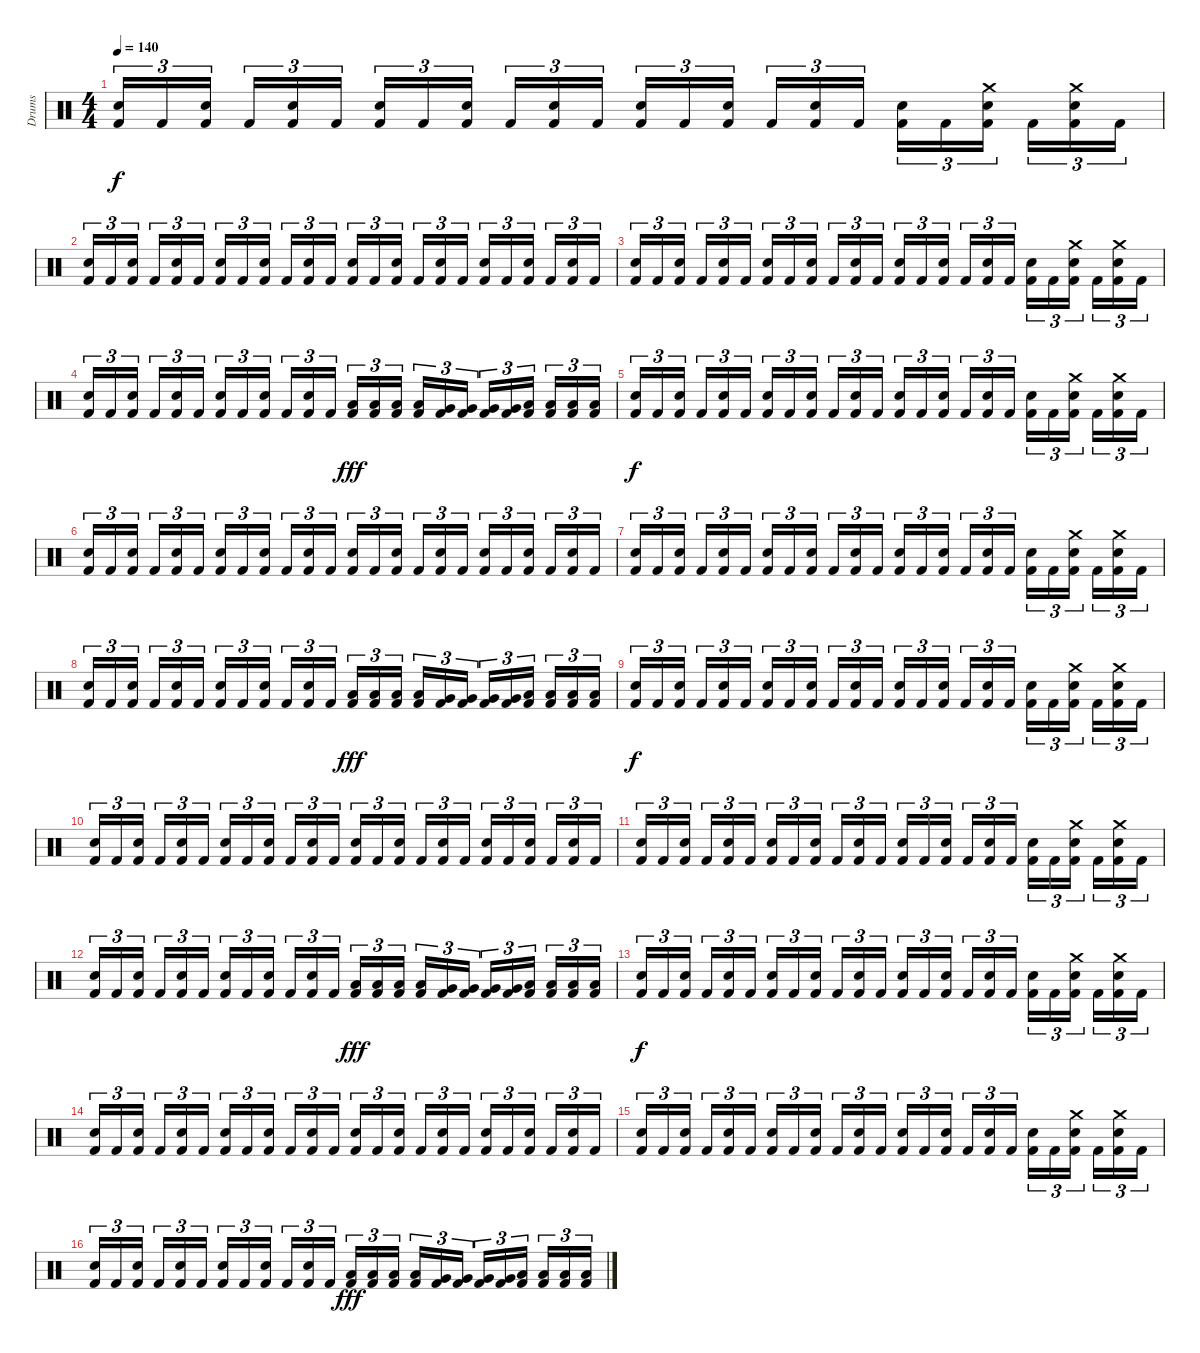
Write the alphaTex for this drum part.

\track ("Drums" "Drums") {instrument percussion}
\staff {score}
\articulation defaults
\ts (4 4)
\tempo 140
\clef neutral
\ks c
("Snare (hit) 2" "Kick (hit) 2").16{tu (3 2) dy f} "Kick (hit) 2".16{tu (3 2)} ("Snare (hit) 2" "Kick (hit) 2").16{tu (3 2)} "Kick (hit) 2".16{tu (3 2)} ("Snare (hit) 2" "Kick (hit) 2").16{tu (3 2)} "Kick (hit) 2".16{tu (3 2)} ("Snare (hit) 2" "Kick (hit) 2").16{tu (3 2)} "Kick (hit) 2".16{tu (3 2)} ("Snare (hit) 2" "Kick (hit) 2").16{tu (3 2)} "Kick (hit) 2".16{tu (3 2)} ("Snare (hit) 2" "Kick (hit) 2").16{tu (3 2)} "Kick (hit) 2".16{tu (3 2)} ("Snare (hit) 2" "Kick (hit) 2").16{tu (3 2)} "Kick (hit) 2".16{tu (3 2)} ("Snare (hit) 2" "Kick (hit) 2").16{tu (3 2)} "Kick (hit) 2".16{tu (3 2)} ("Snare (hit) 2" "Kick (hit) 2").16{tu (3 2)} "Kick (hit) 2".16{tu (3 2)} ("Snare (hit) 2" "Kick (hit) 2").16{tu (3 2)} "Kick (hit) 2".16{tu (3 2)} ("Snare (hit) 2" "Crash medium (hit)" "Kick (hit) 2").16{tu (3 2)} "Kick (hit) 2".16{tu (3 2)} ("Snare (hit) 2" "Crash medium (hit)" "Kick (hit) 2").16{tu (3 2)} "Kick (hit) 2".16{tu (3 2)} |
("Snare (hit) 2" "Kick (hit) 2").16{tu (3 2)} "Kick (hit) 2".16{tu (3 2)} ("Snare (hit) 2" "Kick (hit) 2").16{tu (3 2)} "Kick (hit) 2".16{tu (3 2)} ("Snare (hit) 2" "Kick (hit) 2").16{tu (3 2)} "Kick (hit) 2".16{tu (3 2)} ("Snare (hit) 2" "Kick (hit) 2").16{tu (3 2)} "Kick (hit) 2".16{tu (3 2)} ("Snare (hit) 2" "Kick (hit) 2").16{tu (3 2)} "Kick (hit) 2".16{tu (3 2)} ("Snare (hit) 2" "Kick (hit) 2").16{tu (3 2)} "Kick (hit) 2".16{tu (3 2)} ("Snare (hit) 2" "Kick (hit) 2").16{tu (3 2)} "Kick (hit) 2".16{tu (3 2)} ("Snare (hit) 2" "Kick (hit) 2").16{tu (3 2)} "Kick (hit) 2".16{tu (3 2)} ("Snare (hit) 2" "Kick (hit) 2").16{tu (3 2)} "Kick (hit) 2".16{tu (3 2)} ("Snare (hit) 2" "Kick (hit) 2").16{tu (3 2)} "Kick (hit) 2".16{tu (3 2)} ("Snare (hit) 2" "Kick (hit) 2").16{tu (3 2)} "Kick (hit) 2".16{tu (3 2)} ("Snare (hit) 2" "Kick (hit) 2").16{tu (3 2)} "Kick (hit) 2".16{tu (3 2)} |
("Snare (hit) 2" "Kick (hit) 2").16{tu (3 2)} "Kick (hit) 2".16{tu (3 2)} ("Snare (hit) 2" "Kick (hit) 2").16{tu (3 2)} "Kick (hit) 2".16{tu (3 2)} ("Snare (hit) 2" "Kick (hit) 2").16{tu (3 2)} "Kick (hit) 2".16{tu (3 2)} ("Snare (hit) 2" "Kick (hit) 2").16{tu (3 2)} "Kick (hit) 2".16{tu (3 2)} ("Snare (hit) 2" "Kick (hit) 2").16{tu (3 2)} "Kick (hit) 2".16{tu (3 2)} ("Snare (hit) 2" "Kick (hit) 2").16{tu (3 2)} "Kick (hit) 2".16{tu (3 2)} ("Snare (hit) 2" "Kick (hit) 2").16{tu (3 2)} "Kick (hit) 2".16{tu (3 2)} ("Snare (hit) 2" "Kick (hit) 2").16{tu (3 2)} "Kick (hit) 2".16{tu (3 2)} ("Snare (hit) 2" "Kick (hit) 2").16{tu (3 2)} "Kick (hit) 2".16{tu (3 2)} ("Snare (hit) 2" "Kick (hit) 2").16{tu (3 2)} "Kick (hit) 2".16{tu (3 2)} ("Snare (hit) 2" "Crash medium (hit)" "Kick (hit) 2").16{tu (3 2)} "Kick (hit) 2".16{tu (3 2)} ("Snare (hit) 2" "Crash medium (hit)" "Kick (hit) 2").16{tu (3 2)} "Kick (hit) 2".16{tu (3 2)} |
("Snare (hit) 2" "Kick (hit) 2").16{tu (3 2)} "Kick (hit) 2".16{tu (3 2)} ("Snare (hit) 2" "Kick (hit) 2").16{tu (3 2)} "Kick (hit) 2".16{tu (3 2)} ("Snare (hit) 2" "Kick (hit) 2").16{tu (3 2)} "Kick (hit) 2".16{tu (3 2)} ("Snare (hit) 2" "Kick (hit) 2").16{tu (3 2)} "Kick (hit) 2".16{tu (3 2)} ("Snare (hit) 2" "Kick (hit) 2").16{tu (3 2)} "Kick (hit) 2".16{tu (3 2)} ("Snare (hit) 2" "Kick (hit) 2").16{tu (3 2)} "Kick (hit) 2".16{tu (3 2)} ("Low Tom (hit)" "Kick (hit) 2").16{tu (3 2) dy fff} ("Low Tom (hit)" "Kick (hit) 2").16{tu (3 2)} ("Low Tom (hit)" "Kick (hit) 2").16{tu (3 2)} ("Low Tom (hit)" "Kick (hit) 2").16{tu (3 2)} ("Very Low Tom (hit)" "Kick (hit) 2").16{tu (3 2)} ("Very Low Tom (hit)" "Kick (hit) 2").16{tu (3 2)} ("Very Low Tom (hit)" "Kick (hit) 2").16{tu (3 2)} ("Very Low Tom (hit)" "Kick (hit) 2").16{tu (3 2)} ("Low Floor Tom (hit)" "Kick (hit) 2").16{tu (3 2)} ("Low Floor Tom (hit)" "Kick (hit) 2").16{tu (3 2)} ("Low Floor Tom (hit)" "Kick (hit) 2").16{tu (3 2)} ("Low Floor Tom (hit)" "Kick (hit) 2").16{tu (3 2)} |
("Snare (hit) 2" "Kick (hit) 2").16{tu (3 2) dy f} "Kick (hit) 2".16{tu (3 2)} ("Snare (hit) 2" "Kick (hit) 2").16{tu (3 2)} "Kick (hit) 2".16{tu (3 2)} ("Snare (hit) 2" "Kick (hit) 2").16{tu (3 2)} "Kick (hit) 2".16{tu (3 2)} ("Snare (hit) 2" "Kick (hit) 2").16{tu (3 2)} "Kick (hit) 2".16{tu (3 2)} ("Snare (hit) 2" "Kick (hit) 2").16{tu (3 2)} "Kick (hit) 2".16{tu (3 2)} ("Snare (hit) 2" "Kick (hit) 2").16{tu (3 2)} "Kick (hit) 2".16{tu (3 2)} ("Snare (hit) 2" "Kick (hit) 2").16{tu (3 2)} "Kick (hit) 2".16{tu (3 2)} ("Snare (hit) 2" "Kick (hit) 2").16{tu (3 2)} "Kick (hit) 2".16{tu (3 2)} ("Snare (hit) 2" "Kick (hit) 2").16{tu (3 2)} "Kick (hit) 2".16{tu (3 2)} ("Snare (hit) 2" "Kick (hit) 2").16{tu (3 2)} "Kick (hit) 2".16{tu (3 2)} ("Snare (hit) 2" "Crash medium (hit)" "Kick (hit) 2").16{tu (3 2)} "Kick (hit) 2".16{tu (3 2)} ("Snare (hit) 2" "Crash medium (hit)" "Kick (hit) 2").16{tu (3 2)} "Kick (hit) 2".16{tu (3 2)} |
("Snare (hit) 2" "Kick (hit) 2").16{tu (3 2)} "Kick (hit) 2".16{tu (3 2)} ("Snare (hit) 2" "Kick (hit) 2").16{tu (3 2)} "Kick (hit) 2".16{tu (3 2)} ("Snare (hit) 2" "Kick (hit) 2").16{tu (3 2)} "Kick (hit) 2".16{tu (3 2)} ("Snare (hit) 2" "Kick (hit) 2").16{tu (3 2)} "Kick (hit) 2".16{tu (3 2)} ("Snare (hit) 2" "Kick (hit) 2").16{tu (3 2)} "Kick (hit) 2".16{tu (3 2)} ("Snare (hit) 2" "Kick (hit) 2").16{tu (3 2)} "Kick (hit) 2".16{tu (3 2)} ("Snare (hit) 2" "Kick (hit) 2").16{tu (3 2)} "Kick (hit) 2".16{tu (3 2)} ("Snare (hit) 2" "Kick (hit) 2").16{tu (3 2)} "Kick (hit) 2".16{tu (3 2)} ("Snare (hit) 2" "Kick (hit) 2").16{tu (3 2)} "Kick (hit) 2".16{tu (3 2)} ("Snare (hit) 2" "Kick (hit) 2").16{tu (3 2)} "Kick (hit) 2".16{tu (3 2)} ("Snare (hit) 2" "Kick (hit) 2").16{tu (3 2)} "Kick (hit) 2".16{tu (3 2)} ("Snare (hit) 2" "Kick (hit) 2").16{tu (3 2)} "Kick (hit) 2".16{tu (3 2)} |
("Snare (hit) 2" "Kick (hit) 2").16{tu (3 2)} "Kick (hit) 2".16{tu (3 2)} ("Snare (hit) 2" "Kick (hit) 2").16{tu (3 2)} "Kick (hit) 2".16{tu (3 2)} ("Snare (hit) 2" "Kick (hit) 2").16{tu (3 2)} "Kick (hit) 2".16{tu (3 2)} ("Snare (hit) 2" "Kick (hit) 2").16{tu (3 2)} "Kick (hit) 2".16{tu (3 2)} ("Snare (hit) 2" "Kick (hit) 2").16{tu (3 2)} "Kick (hit) 2".16{tu (3 2)} ("Snare (hit) 2" "Kick (hit) 2").16{tu (3 2)} "Kick (hit) 2".16{tu (3 2)} ("Snare (hit) 2" "Kick (hit) 2").16{tu (3 2)} "Kick (hit) 2".16{tu (3 2)} ("Snare (hit) 2" "Kick (hit) 2").16{tu (3 2)} "Kick (hit) 2".16{tu (3 2)} ("Snare (hit) 2" "Kick (hit) 2").16{tu (3 2)} "Kick (hit) 2".16{tu (3 2)} ("Snare (hit) 2" "Kick (hit) 2").16{tu (3 2)} "Kick (hit) 2".16{tu (3 2)} ("Snare (hit) 2" "Crash medium (hit)" "Kick (hit) 2").16{tu (3 2)} "Kick (hit) 2".16{tu (3 2)} ("Snare (hit) 2" "Crash medium (hit)" "Kick (hit) 2").16{tu (3 2)} "Kick (hit) 2".16{tu (3 2)} |
("Snare (hit) 2" "Kick (hit) 2").16{tu (3 2)} "Kick (hit) 2".16{tu (3 2)} ("Snare (hit) 2" "Kick (hit) 2").16{tu (3 2)} "Kick (hit) 2".16{tu (3 2)} ("Snare (hit) 2" "Kick (hit) 2").16{tu (3 2)} "Kick (hit) 2".16{tu (3 2)} ("Snare (hit) 2" "Kick (hit) 2").16{tu (3 2)} "Kick (hit) 2".16{tu (3 2)} ("Snare (hit) 2" "Kick (hit) 2").16{tu (3 2)} "Kick (hit) 2".16{tu (3 2)} ("Snare (hit) 2" "Kick (hit) 2").16{tu (3 2)} "Kick (hit) 2".16{tu (3 2)} ("Low Tom (hit)" "Kick (hit) 2").16{tu (3 2) dy fff} ("Low Tom (hit)" "Kick (hit) 2").16{tu (3 2)} ("Low Tom (hit)" "Kick (hit) 2").16{tu (3 2)} ("Low Tom (hit)" "Kick (hit) 2").16{tu (3 2)} ("Very Low Tom (hit)" "Kick (hit) 2").16{tu (3 2)} ("Very Low Tom (hit)" "Kick (hit) 2").16{tu (3 2)} ("Very Low Tom (hit)" "Kick (hit) 2").16{tu (3 2)} ("Very Low Tom (hit)" "Kick (hit) 2").16{tu (3 2)} ("Low Floor Tom (hit)" "Kick (hit) 2").16{tu (3 2)} ("Low Floor Tom (hit)" "Kick (hit) 2").16{tu (3 2)} ("Low Floor Tom (hit)" "Kick (hit) 2").16{tu (3 2)} ("Low Floor Tom (hit)" "Kick (hit) 2").16{tu (3 2)} |
("Snare (hit) 2" "Kick (hit) 2").16{tu (3 2) dy f} "Kick (hit) 2".16{tu (3 2)} ("Snare (hit) 2" "Kick (hit) 2").16{tu (3 2)} "Kick (hit) 2".16{tu (3 2)} ("Snare (hit) 2" "Kick (hit) 2").16{tu (3 2)} "Kick (hit) 2".16{tu (3 2)} ("Snare (hit) 2" "Kick (hit) 2").16{tu (3 2)} "Kick (hit) 2".16{tu (3 2)} ("Snare (hit) 2" "Kick (hit) 2").16{tu (3 2)} "Kick (hit) 2".16{tu (3 2)} ("Snare (hit) 2" "Kick (hit) 2").16{tu (3 2)} "Kick (hit) 2".16{tu (3 2)} ("Snare (hit) 2" "Kick (hit) 2").16{tu (3 2)} "Kick (hit) 2".16{tu (3 2)} ("Snare (hit) 2" "Kick (hit) 2").16{tu (3 2)} "Kick (hit) 2".16{tu (3 2)} ("Snare (hit) 2" "Kick (hit) 2").16{tu (3 2)} "Kick (hit) 2".16{tu (3 2)} ("Snare (hit) 2" "Kick (hit) 2").16{tu (3 2)} "Kick (hit) 2".16{tu (3 2)} ("Snare (hit) 2" "Crash medium (hit)" "Kick (hit) 2").16{tu (3 2)} "Kick (hit) 2".16{tu (3 2)} ("Snare (hit) 2" "Crash medium (hit)" "Kick (hit) 2").16{tu (3 2)} "Kick (hit) 2".16{tu (3 2)} |
("Snare (hit) 2" "Kick (hit) 2").16{tu (3 2)} "Kick (hit) 2".16{tu (3 2)} ("Snare (hit) 2" "Kick (hit) 2").16{tu (3 2)} "Kick (hit) 2".16{tu (3 2)} ("Snare (hit) 2" "Kick (hit) 2").16{tu (3 2)} "Kick (hit) 2".16{tu (3 2)} ("Snare (hit) 2" "Kick (hit) 2").16{tu (3 2)} "Kick (hit) 2".16{tu (3 2)} ("Snare (hit) 2" "Kick (hit) 2").16{tu (3 2)} "Kick (hit) 2".16{tu (3 2)} ("Snare (hit) 2" "Kick (hit) 2").16{tu (3 2)} "Kick (hit) 2".16{tu (3 2)} ("Snare (hit) 2" "Kick (hit) 2").16{tu (3 2)} "Kick (hit) 2".16{tu (3 2)} ("Snare (hit) 2" "Kick (hit) 2").16{tu (3 2)} "Kick (hit) 2".16{tu (3 2)} ("Snare (hit) 2" "Kick (hit) 2").16{tu (3 2)} "Kick (hit) 2".16{tu (3 2)} ("Snare (hit) 2" "Kick (hit) 2").16{tu (3 2)} "Kick (hit) 2".16{tu (3 2)} ("Snare (hit) 2" "Kick (hit) 2").16{tu (3 2)} "Kick (hit) 2".16{tu (3 2)} ("Snare (hit) 2" "Kick (hit) 2").16{tu (3 2)} "Kick (hit) 2".16{tu (3 2)} |
("Snare (hit) 2" "Kick (hit) 2").16{tu (3 2)} "Kick (hit) 2".16{tu (3 2)} ("Snare (hit) 2" "Kick (hit) 2").16{tu (3 2)} "Kick (hit) 2".16{tu (3 2)} ("Snare (hit) 2" "Kick (hit) 2").16{tu (3 2)} "Kick (hit) 2".16{tu (3 2)} ("Snare (hit) 2" "Kick (hit) 2").16{tu (3 2)} "Kick (hit) 2".16{tu (3 2)} ("Snare (hit) 2" "Kick (hit) 2").16{tu (3 2)} "Kick (hit) 2".16{tu (3 2)} ("Snare (hit) 2" "Kick (hit) 2").16{tu (3 2)} "Kick (hit) 2".16{tu (3 2)} ("Snare (hit) 2" "Kick (hit) 2").16{tu (3 2)} "Kick (hit) 2".16{tu (3 2)} ("Snare (hit) 2" "Kick (hit) 2").16{tu (3 2)} "Kick (hit) 2".16{tu (3 2)} ("Snare (hit) 2" "Kick (hit) 2").16{tu (3 2)} "Kick (hit) 2".16{tu (3 2)} ("Snare (hit) 2" "Kick (hit) 2").16{tu (3 2)} "Kick (hit) 2".16{tu (3 2)} ("Snare (hit) 2" "Crash medium (hit)" "Kick (hit) 2").16{tu (3 2)} "Kick (hit) 2".16{tu (3 2)} ("Snare (hit) 2" "Crash medium (hit)" "Kick (hit) 2").16{tu (3 2)} "Kick (hit) 2".16{tu (3 2)} |
("Snare (hit) 2" "Kick (hit) 2").16{tu (3 2)} "Kick (hit) 2".16{tu (3 2)} ("Snare (hit) 2" "Kick (hit) 2").16{tu (3 2)} "Kick (hit) 2".16{tu (3 2)} ("Snare (hit) 2" "Kick (hit) 2").16{tu (3 2)} "Kick (hit) 2".16{tu (3 2)} ("Snare (hit) 2" "Kick (hit) 2").16{tu (3 2)} "Kick (hit) 2".16{tu (3 2)} ("Snare (hit) 2" "Kick (hit) 2").16{tu (3 2)} "Kick (hit) 2".16{tu (3 2)} ("Snare (hit) 2" "Kick (hit) 2").16{tu (3 2)} "Kick (hit) 2".16{tu (3 2)} ("Low Tom (hit)" "Kick (hit) 2").16{tu (3 2) dy fff} ("Low Tom (hit)" "Kick (hit) 2").16{tu (3 2)} ("Low Tom (hit)" "Kick (hit) 2").16{tu (3 2)} ("Low Tom (hit)" "Kick (hit) 2").16{tu (3 2)} ("Very Low Tom (hit)" "Kick (hit) 2").16{tu (3 2)} ("Very Low Tom (hit)" "Kick (hit) 2").16{tu (3 2)} ("Very Low Tom (hit)" "Kick (hit) 2").16{tu (3 2)} ("Very Low Tom (hit)" "Kick (hit) 2").16{tu (3 2)} ("Low Floor Tom (hit)" "Kick (hit) 2").16{tu (3 2)} ("Low Floor Tom (hit)" "Kick (hit) 2").16{tu (3 2)} ("Low Floor Tom (hit)" "Kick (hit) 2").16{tu (3 2)} ("Low Floor Tom (hit)" "Kick (hit) 2").16{tu (3 2)} |
("Snare (hit) 2" "Kick (hit) 2").16{tu (3 2) dy f} "Kick (hit) 2".16{tu (3 2)} ("Snare (hit) 2" "Kick (hit) 2").16{tu (3 2)} "Kick (hit) 2".16{tu (3 2)} ("Snare (hit) 2" "Kick (hit) 2").16{tu (3 2)} "Kick (hit) 2".16{tu (3 2)} ("Snare (hit) 2" "Kick (hit) 2").16{tu (3 2)} "Kick (hit) 2".16{tu (3 2)} ("Snare (hit) 2" "Kick (hit) 2").16{tu (3 2)} "Kick (hit) 2".16{tu (3 2)} ("Snare (hit) 2" "Kick (hit) 2").16{tu (3 2)} "Kick (hit) 2".16{tu (3 2)} ("Snare (hit) 2" "Kick (hit) 2").16{tu (3 2)} "Kick (hit) 2".16{tu (3 2)} ("Snare (hit) 2" "Kick (hit) 2").16{tu (3 2)} "Kick (hit) 2".16{tu (3 2)} ("Snare (hit) 2" "Kick (hit) 2").16{tu (3 2)} "Kick (hit) 2".16{tu (3 2)} ("Snare (hit) 2" "Kick (hit) 2").16{tu (3 2)} "Kick (hit) 2".16{tu (3 2)} ("Snare (hit) 2" "Crash medium (hit)" "Kick (hit) 2").16{tu (3 2)} "Kick (hit) 2".16{tu (3 2)} ("Snare (hit) 2" "Crash medium (hit)" "Kick (hit) 2").16{tu (3 2)} "Kick (hit) 2".16{tu (3 2)} |
("Snare (hit) 2" "Kick (hit) 2").16{tu (3 2)} "Kick (hit) 2".16{tu (3 2)} ("Snare (hit) 2" "Kick (hit) 2").16{tu (3 2)} "Kick (hit) 2".16{tu (3 2)} ("Snare (hit) 2" "Kick (hit) 2").16{tu (3 2)} "Kick (hit) 2".16{tu (3 2)} ("Snare (hit) 2" "Kick (hit) 2").16{tu (3 2)} "Kick (hit) 2".16{tu (3 2)} ("Snare (hit) 2" "Kick (hit) 2").16{tu (3 2)} "Kick (hit) 2".16{tu (3 2)} ("Snare (hit) 2" "Kick (hit) 2").16{tu (3 2)} "Kick (hit) 2".16{tu (3 2)} ("Snare (hit) 2" "Kick (hit) 2").16{tu (3 2)} "Kick (hit) 2".16{tu (3 2)} ("Snare (hit) 2" "Kick (hit) 2").16{tu (3 2)} "Kick (hit) 2".16{tu (3 2)} ("Snare (hit) 2" "Kick (hit) 2").16{tu (3 2)} "Kick (hit) 2".16{tu (3 2)} ("Snare (hit) 2" "Kick (hit) 2").16{tu (3 2)} "Kick (hit) 2".16{tu (3 2)} ("Snare (hit) 2" "Kick (hit) 2").16{tu (3 2)} "Kick (hit) 2".16{tu (3 2)} ("Snare (hit) 2" "Kick (hit) 2").16{tu (3 2)} "Kick (hit) 2".16{tu (3 2)} |
("Snare (hit) 2" "Kick (hit) 2").16{tu (3 2)} "Kick (hit) 2".16{tu (3 2)} ("Snare (hit) 2" "Kick (hit) 2").16{tu (3 2)} "Kick (hit) 2".16{tu (3 2)} ("Snare (hit) 2" "Kick (hit) 2").16{tu (3 2)} "Kick (hit) 2".16{tu (3 2)} ("Snare (hit) 2" "Kick (hit) 2").16{tu (3 2)} "Kick (hit) 2".16{tu (3 2)} ("Snare (hit) 2" "Kick (hit) 2").16{tu (3 2)} "Kick (hit) 2".16{tu (3 2)} ("Snare (hit) 2" "Kick (hit) 2").16{tu (3 2)} "Kick (hit) 2".16{tu (3 2)} ("Snare (hit) 2" "Kick (hit) 2").16{tu (3 2)} "Kick (hit) 2".16{tu (3 2)} ("Snare (hit) 2" "Kick (hit) 2").16{tu (3 2)} "Kick (hit) 2".16{tu (3 2)} ("Snare (hit) 2" "Kick (hit) 2").16{tu (3 2)} "Kick (hit) 2".16{tu (3 2)} ("Snare (hit) 2" "Kick (hit) 2").16{tu (3 2)} "Kick (hit) 2".16{tu (3 2)} ("Snare (hit) 2" "Crash medium (hit)" "Kick (hit) 2").16{tu (3 2)} "Kick (hit) 2".16{tu (3 2)} ("Snare (hit) 2" "Crash medium (hit)" "Kick (hit) 2").16{tu (3 2)} "Kick (hit) 2".16{tu (3 2)} |
("Snare (hit) 2" "Kick (hit) 2").16{tu (3 2)} "Kick (hit) 2".16{tu (3 2)} ("Snare (hit) 2" "Kick (hit) 2").16{tu (3 2)} "Kick (hit) 2".16{tu (3 2)} ("Snare (hit) 2" "Kick (hit) 2").16{tu (3 2)} "Kick (hit) 2".16{tu (3 2)} ("Snare (hit) 2" "Kick (hit) 2").16{tu (3 2)} "Kick (hit) 2".16{tu (3 2)} ("Snare (hit) 2" "Kick (hit) 2").16{tu (3 2)} "Kick (hit) 2".16{tu (3 2)} ("Snare (hit) 2" "Kick (hit) 2").16{tu (3 2)} "Kick (hit) 2".16{tu (3 2)} ("Low Tom (hit)" "Kick (hit) 2").16{tu (3 2) dy fff} ("Low Tom (hit)" "Kick (hit) 2").16{tu (3 2)} ("Low Tom (hit)" "Kick (hit) 2").16{tu (3 2)} ("Low Tom (hit)" "Kick (hit) 2").16{tu (3 2)} ("Very Low Tom (hit)" "Kick (hit) 2").16{tu (3 2)} ("Very Low Tom (hit)" "Kick (hit) 2").16{tu (3 2)} ("Very Low Tom (hit)" "Kick (hit) 2").16{tu (3 2)} ("Very Low Tom (hit)" "Kick (hit) 2").16{tu (3 2)} ("Low Floor Tom (hit)" "Kick (hit) 2").16{tu (3 2)} ("Low Floor Tom (hit)" "Kick (hit) 2").16{tu (3 2)} ("Low Floor Tom (hit)" "Kick (hit) 2").16{tu (3 2)} ("Low Floor Tom (hit)" "Kick (hit) 2").16{tu (3 2)}
